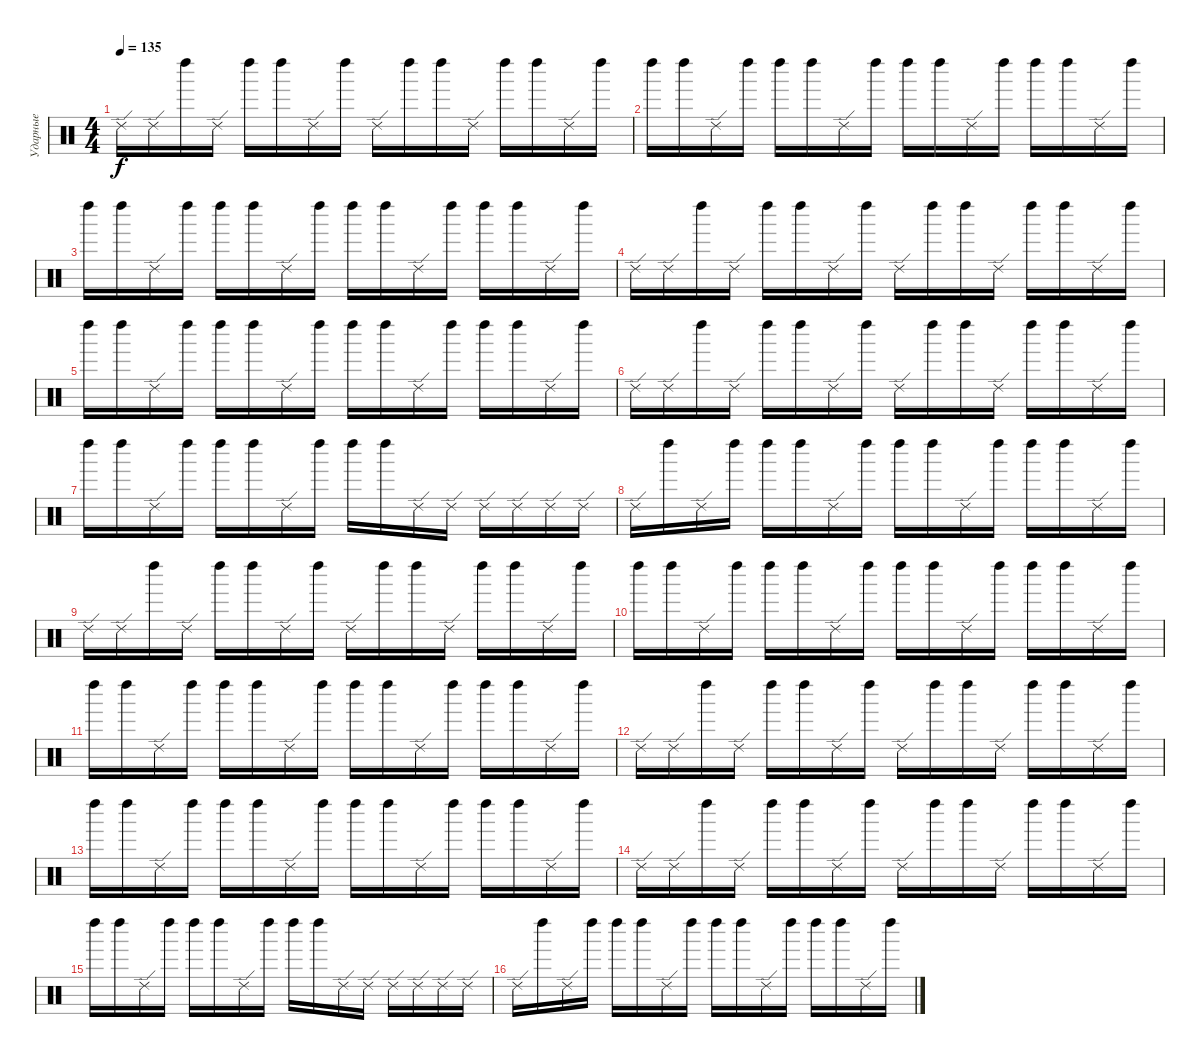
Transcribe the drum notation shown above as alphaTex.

\track ("Ударные" "Ударные") {instrument percussion}
\staff {score}
\articulation defaults
\ts (4 4)
\tempo 135
\clef neutral
\ks c "Ride (edge) 2".16{dy f} "Ride (edge) 2".16 "Left Maraca (hit)".16 "Ride (edge) 2".16 "Left Maraca (hit)".16 "Left Maraca (hit)".16 "Ride (edge) 2".16 "Left Maraca (hit)".16 "Ride (edge) 2".16 "Left Maraca (hit)".16 "Left Maraca (hit)".16 "Ride (edge) 2".16 "Left Maraca (hit)".16 "Left Maraca (hit)".16 "Ride (edge) 2".16 "Left Maraca (hit)".16
|
"Left Maraca (hit)".16 "Left Maraca (hit)".16 "Ride (edge) 2".16 "Left Maraca (hit)".16 "Left Maraca (hit)".16 "Left Maraca (hit)".16 "Ride (edge) 2".16 "Left Maraca (hit)".16 "Left Maraca (hit)".16 "Left Maraca (hit)".16 "Ride (edge) 2".16 "Left Maraca (hit)".16 "Left Maraca (hit)".16 "Left Maraca (hit)".16 "Ride (edge) 2".16 "Left Maraca (hit)".16 |
"Left Maraca (hit)".16 "Left Maraca (hit)".16 "Ride (edge) 2".16 "Left Maraca (hit)".16 "Left Maraca (hit)".16 "Left Maraca (hit)".16 "Ride (edge) 2".16 "Left Maraca (hit)".16 "Left Maraca (hit)".16 "Left Maraca (hit)".16 "Ride (edge) 2".16 "Left Maraca (hit)".16 "Left Maraca (hit)".16 "Left Maraca (hit)".16 "Ride (edge) 2".16 "Left Maraca (hit)".16 |
"Ride (edge) 2".16 "Ride (edge) 2".16 "Left Maraca (hit)".16 "Ride (edge) 2".16 "Left Maraca (hit)".16 "Left Maraca (hit)".16 "Ride (edge) 2".16 "Left Maraca (hit)".16 "Ride (edge) 2".16 "Left Maraca (hit)".16 "Left Maraca (hit)".16 "Ride (edge) 2".16 "Left Maraca (hit)".16 "Left Maraca (hit)".16 "Ride (edge) 2".16 "Left Maraca (hit)".16 |
"Left Maraca (hit)".16 "Left Maraca (hit)".16 "Ride (edge) 2".16 "Left Maraca (hit)".16 "Left Maraca (hit)".16 "Left Maraca (hit)".16 "Ride (edge) 2".16 "Left Maraca (hit)".16 "Left Maraca (hit)".16 "Left Maraca (hit)".16 "Ride (edge) 2".16 "Left Maraca (hit)".16 "Left Maraca (hit)".16 "Left Maraca (hit)".16 "Ride (edge) 2".16 "Left Maraca (hit)".16 |
"Ride (edge) 2".16 "Ride (edge) 2".16 "Left Maraca (hit)".16 "Ride (edge) 2".16 "Left Maraca (hit)".16 "Left Maraca (hit)".16 "Ride (edge) 2".16 "Left Maraca (hit)".16 "Ride (edge) 2".16 "Left Maraca (hit)".16 "Left Maraca (hit)".16 "Ride (edge) 2".16 "Left Maraca (hit)".16 "Left Maraca (hit)".16 "Ride (edge) 2".16 "Left Maraca (hit)".16 |
"Left Maraca (hit)".16 "Left Maraca (hit)".16 "Ride (edge) 2".16 "Left Maraca (hit)".16 "Left Maraca (hit)".16 "Left Maraca (hit)".16 "Ride (edge) 2".16 "Left Maraca (hit)".16 "Left Maraca (hit)".16 "Left Maraca (hit)".16 "Ride (edge) 2".16 "Ride (edge) 2".16 "Ride (edge) 2".16 "Ride (edge) 2".16 "Ride (edge) 2".16 "Ride (edge) 2".16 |
"Ride (edge) 2".16 "Left Maraca (hit)".16 "Ride (edge) 2".16 "Left Maraca (hit)".16 "Left Maraca (hit)".16 "Left Maraca (hit)".16 "Ride (edge) 2".16 "Left Maraca (hit)".16 "Left Maraca (hit)".16 "Left Maraca (hit)".16 "Ride (edge) 2".16 "Left Maraca (hit)".16 "Left Maraca (hit)".16 "Left Maraca (hit)".16 "Ride (edge) 2".16 "Left Maraca (hit)".16 |
"Ride (edge) 2".16 "Ride (edge) 2".16 "Left Maraca (hit)".16 "Ride (edge) 2".16 "Left Maraca (hit)".16 "Left Maraca (hit)".16 "Ride (edge) 2".16 "Left Maraca (hit)".16 "Ride (edge) 2".16 "Left Maraca (hit)".16 "Left Maraca (hit)".16 "Ride (edge) 2".16 "Left Maraca (hit)".16 "Left Maraca (hit)".16 "Ride (edge) 2".16 "Left Maraca (hit)".16 |
"Left Maraca (hit)".16 "Left Maraca (hit)".16 "Ride (edge) 2".16 "Left Maraca (hit)".16 "Left Maraca (hit)".16 "Left Maraca (hit)".16 "Ride (edge) 2".16 "Left Maraca (hit)".16 "Left Maraca (hit)".16 "Left Maraca (hit)".16 "Ride (edge) 2".16 "Left Maraca (hit)".16 "Left Maraca (hit)".16 "Left Maraca (hit)".16 "Ride (edge) 2".16 "Left Maraca (hit)".16 |
"Left Maraca (hit)".16 "Left Maraca (hit)".16 "Ride (edge) 2".16 "Left Maraca (hit)".16 "Left Maraca (hit)".16 "Left Maraca (hit)".16 "Ride (edge) 2".16 "Left Maraca (hit)".16 "Left Maraca (hit)".16 "Left Maraca (hit)".16 "Ride (edge) 2".16 "Left Maraca (hit)".16 "Left Maraca (hit)".16 "Left Maraca (hit)".16 "Ride (edge) 2".16 "Left Maraca (hit)".16 |
"Ride (edge) 2".16 "Ride (edge) 2".16 "Left Maraca (hit)".16 "Ride (edge) 2".16 "Left Maraca (hit)".16 "Left Maraca (hit)".16 "Ride (edge) 2".16 "Left Maraca (hit)".16 "Ride (edge) 2".16 "Left Maraca (hit)".16 "Left Maraca (hit)".16 "Ride (edge) 2".16 "Left Maraca (hit)".16 "Left Maraca (hit)".16 "Ride (edge) 2".16 "Left Maraca (hit)".16 |
"Left Maraca (hit)".16 "Left Maraca (hit)".16 "Ride (edge) 2".16 "Left Maraca (hit)".16 "Left Maraca (hit)".16 "Left Maraca (hit)".16 "Ride (edge) 2".16 "Left Maraca (hit)".16 "Left Maraca (hit)".16 "Left Maraca (hit)".16 "Ride (edge) 2".16 "Left Maraca (hit)".16 "Left Maraca (hit)".16 "Left Maraca (hit)".16 "Ride (edge) 2".16 "Left Maraca (hit)".16 |
"Ride (edge) 2".16 "Ride (edge) 2".16 "Left Maraca (hit)".16 "Ride (edge) 2".16 "Left Maraca (hit)".16 "Left Maraca (hit)".16 "Ride (edge) 2".16 "Left Maraca (hit)".16 "Ride (edge) 2".16 "Left Maraca (hit)".16 "Left Maraca (hit)".16 "Ride (edge) 2".16 "Left Maraca (hit)".16 "Left Maraca (hit)".16 "Ride (edge) 2".16 "Left Maraca (hit)".16 |
"Left Maraca (hit)".16 "Left Maraca (hit)".16 "Ride (edge) 2".16 "Left Maraca (hit)".16 "Left Maraca (hit)".16 "Left Maraca (hit)".16 "Ride (edge) 2".16 "Left Maraca (hit)".16 "Left Maraca (hit)".16 "Left Maraca (hit)".16 "Ride (edge) 2".16 "Ride (edge) 2".16 "Ride (edge) 2".16 "Ride (edge) 2".16 "Ride (edge) 2".16 "Ride (edge) 2".16 |
"Ride (edge) 2".16 "Left Maraca (hit)".16 "Ride (edge) 2".16 "Left Maraca (hit)".16 "Left Maraca (hit)".16 "Left Maraca (hit)".16 "Ride (edge) 2".16 "Left Maraca (hit)".16 "Left Maraca (hit)".16 "Left Maraca (hit)".16 "Ride (edge) 2".16 "Left Maraca (hit)".16 "Left Maraca (hit)".16 "Left Maraca (hit)".16 "Ride (edge) 2".16 "Left Maraca (hit)".16
